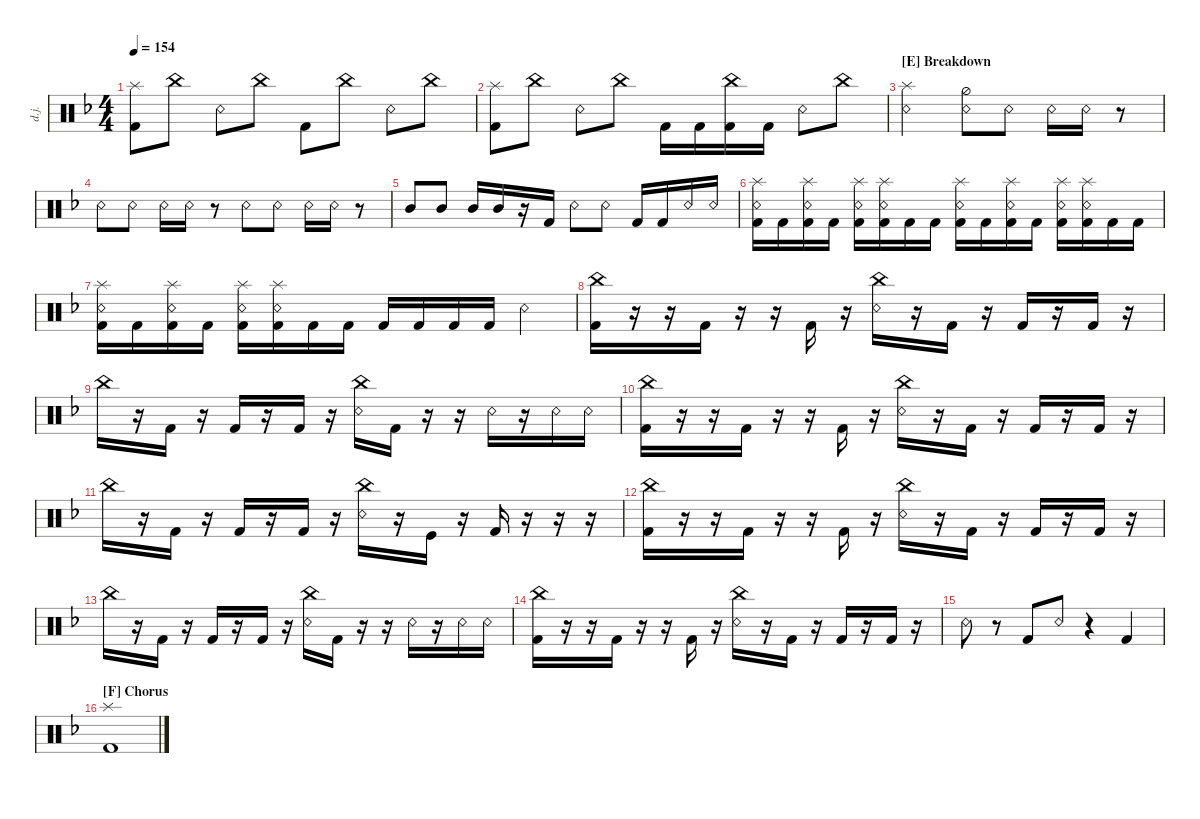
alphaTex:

\defaultSystemsLayout 4
\hideDynamics
\bracketExtendMode nobrackets
\otherSystemsTrackNameOrientation horizontal
\track ("Drumkit Jason" "d.j.") {instrument percussion}
\staff {score}
\articulation defaults
\ts (4 4)
\tempo 154
\clef neutral
\ks dminor
("Splash (hit)"{acc forcenatural} "Kick (hit) 2"{acc forcenatural}).8{dy ff beam Down} "China (hit)"{acc forcenatural}.8{beam Down} "Snare (rim shot)"{acc forcenatural}.8{beam Down} "China (hit)"{acc forcenatural}.8{beam Down} "Kick (hit) 2"{acc forcenatural}.8{beam Down} "China (hit)"{acc forcenatural}.8{beam Down} "Snare (rim shot)"{acc forcenatural}.8{beam Down} "China (hit)"{acc forcenatural}.8{beam Down} |
("Splash (hit)"{acc forcenatural} "Kick (hit) 2"{acc forcenatural}).8{beam Down} "China (hit)"{acc forcenatural}.8{beam Down} "Snare (rim shot)"{acc forcenatural}.8{beam Down} "China (hit)"{acc forcenatural}.8{beam Down} "Kick (hit) 2"{acc forcenatural}.16{beam Down} "Kick (hit) 2"{acc forcenatural}.16{beam Down} ("China (hit)"{acc forcenatural} "Kick (hit) 2"{acc forcenatural}).16{beam Down} "Kick (hit) 2"{acc forcenatural}.16{beam Down} "Snare (rim shot)"{acc forcenatural}.8{beam Down} "China (hit)"{acc forcenatural}.8{beam Down} |
\section ("E" "Breakdown")
("Snare (rim shot)"{acc forcenatural} "Splash (hit)"{acc forcenatural}).2{beam Down} ("Snare (rim shot)"{acc forcenatural} "Hi-Hat (half)"{acc forcenatural}).8{beam Down} "Snare (rim shot)"{acc forcenatural}.8{beam Down} "Snare (rim shot)"{acc forcenatural}.16{beam Down} "Snare (rim shot)"{acc forcenatural}.16{beam Down} r.8{beam Down} |
"Snare (rim shot)"{acc forcenatural}.8{beam Down} "Snare (rim shot)"{acc forcenatural}.8{beam Down} "Snare (rim shot)"{acc forcenatural}.16{beam Down} "Snare (rim shot)"{acc forcenatural}.16{beam Down} r.8{beam Down} "Snare (rim shot)"{acc forcenatural}.8{beam Down} "Snare (rim shot)"{acc forcenatural}.8{beam Down} "Snare (rim shot)"{acc forcenatural}.16{beam Down} "Snare (rim shot)"{acc forcenatural}.16{beam Down} r.8{beam Down} |
"Mid Tom (hit)"{acc forcenatural}.8{beam Up} "Mid Tom (hit)"{acc forcenatural}.8{beam Up} "Mid Tom (hit)"{acc forcenatural}.16{beam Up} "Mid Tom (hit)"{acc forcenatural}.16{beam Up} r.16{beam Up} "Kick (hit) 2"{acc forcenatural}.16{beam Up} "Snare (rim shot)"{acc forcenatural}.8{beam Down} "Snare (rim shot)"{acc forcenatural}.8{beam Down} "Kick (hit) 2"{acc forcenatural}.16{beam Up} "Kick (hit) 2"{acc forcenatural}.16{beam Up} "Snare (rim shot)"{acc forcenatural}.16{beam Up} "Snare (rim shot)"{acc forcenatural}.16{beam Up} |
("Kick (hit) 2"{acc forcenatural} "Snare (rim shot)"{acc forcenatural} "Splash (hit)"{acc forcenatural}).16{beam Down} "Kick (hit) 2"{acc forcenatural}.16{beam Down} ("Kick (hit) 2"{acc forcenatural} "Snare (rim shot)"{acc forcenatural} "Splash (hit)"{acc forcenatural}).16{beam Down} "Kick (hit) 2"{acc forcenatural}.16{beam Down} ("Kick (hit) 2"{acc forcenatural} "Snare (rim shot)"{acc forcenatural} "Splash (hit)"{acc forcenatural}).16{beam Down} ("Kick (hit) 2"{acc forcenatural} "Snare (rim shot)"{acc forcenatural} "Splash (hit)"{acc forcenatural}).16{beam Down} "Kick (hit) 2"{acc forcenatural}.16{beam Down} "Kick (hit) 2"{acc forcenatural}.16{beam Down} ("Kick (hit) 2"{acc forcenatural} "Snare (rim shot)"{acc forcenatural} "Splash (hit)"{acc forcenatural}).16{beam Down} "Kick (hit) 2"{acc forcenatural}.16{beam Down} ("Kick (hit) 2"{acc forcenatural} "Snare (rim shot)"{acc forcenatural} "Splash (hit)"{acc forcenatural}).16{beam Down} "Kick (hit) 2"{acc forcenatural}.16{beam Down} ("Kick (hit) 2"{acc forcenatural} "Snare (rim shot)"{acc forcenatural} "Splash (hit)"{acc forcenatural}).16{beam Down} ("Kick (hit) 2"{acc forcenatural} "Snare (rim shot)"{acc forcenatural} "Splash (hit)"{acc forcenatural}).16{beam Down} "Kick (hit) 2"{acc forcenatural}.16{beam Down} "Kick (hit) 2"{acc forcenatural}.16{beam Down} |
("Kick (hit) 2"{acc forcenatural} "Snare (rim shot)"{acc forcenatural} "Splash (hit)"{acc forcenatural}).16{beam Down} "Kick (hit) 2"{acc forcenatural}.16{beam Down} ("Kick (hit) 2"{acc forcenatural} "Snare (rim shot)"{acc forcenatural} "Splash (hit)"{acc forcenatural}).16{beam Down} "Kick (hit) 2"{acc forcenatural}.16{beam Down} ("Kick (hit) 2"{acc forcenatural} "Snare (rim shot)"{acc forcenatural} "Splash (hit)"{acc forcenatural}).16{beam Down} ("Kick (hit) 2"{acc forcenatural} "Snare (rim shot)"{acc forcenatural} "Splash (hit)"{acc forcenatural}).16{beam Down} "Kick (hit) 2"{acc forcenatural}.16{beam Down} "Kick (hit) 2"{acc forcenatural}.16{beam Down} "Kick (hit) 2"{acc forcenatural}.16{beam Up} "Kick (hit) 2"{acc forcenatural}.16{beam Up} "Kick (hit) 2"{acc forcenatural}.16{beam Up} "Kick (hit) 2"{acc forcenatural}.16{beam Up} "Snare (rim shot)"{acc forcenatural}.4{beam Down} |
("Kick (hit) 2"{acc forcenatural} "China (hit)"{acc forcenatural}).16{beam Down} r.16{beam Down} r.16{beam Down} "Kick (hit) 2"{acc forcenatural}.16{beam Down} r.16{beam Down} r.16{beam Down} "Kick (hit) 2"{acc forcenatural}.16{beam Up} r.16{beam Up} ("Snare (rim shot)"{acc forcenatural} "China (hit)"{acc forcenatural}).16{beam Down} r.16{beam Down} "Kick (hit) 2"{acc forcenatural}.16{beam Down} r.16{beam Down} "Kick (hit) 2"{acc forcenatural}.16{beam Up} r.16{beam Up} "Kick (hit) 2"{acc forcenatural}.16{beam Up} r.16{beam Up} |
"China (hit)"{acc forcenatural}.16{beam Down} r.16{beam Down} "Kick (hit) 2"{acc forcenatural}.16{beam Down} r.16{beam Down} "Kick (hit) 2"{acc forcenatural}.16{beam Up} r.16{beam Up} "Kick (hit) 2"{acc forcenatural}.16{beam Up} r.16{beam Up} ("Snare (rim shot)"{acc forcenatural} "China (hit)"{acc forcenatural}).16{beam Down} "Kick (hit) 2"{acc forcenatural}.16{beam Down} r.16{beam Down} r.16{beam Down} "Snare (rim shot)"{acc forcenatural}.16{beam Down} r.16{beam Down} "Snare (rim shot)"{acc forcenatural}.16{beam Down} "Snare (rim shot)"{acc forcenatural}.16{beam Down} |
("Kick (hit) 2"{acc forcenatural} "China (hit)"{acc forcenatural}).16{beam Down} r.16{beam Down} r.16{beam Down} "Kick (hit) 2"{acc forcenatural}.16{beam Down} r.16{beam Down} r.16{beam Down} "Kick (hit) 2"{acc forcenatural}.16{beam Up} r.16{beam Up} ("Snare (rim shot)"{acc forcenatural} "China (hit)"{acc forcenatural}).16{beam Down} r.16{beam Down} "Kick (hit) 2"{acc forcenatural}.16{beam Down} r.16{beam Down} "Kick (hit) 2"{acc forcenatural}.16{beam Up} r.16{beam Up} "Kick (hit) 2"{acc forcenatural}.16{beam Up} r.16{beam Up} |
"China (hit)"{acc forcenatural}.16{beam Down} r.16{beam Down} "Kick (hit) 2"{acc forcenatural}.16{beam Down} r.16{beam Down} "Kick (hit) 2"{acc forcenatural}.16{beam Up} r.16{beam Up} "Kick (hit) 2"{acc forcenatural}.16{beam Up} r.16{beam Up} ("Snare (rim shot)"{acc forcenatural} "China (hit)"{acc forcenatural}).16{beam Down} r.16{beam Down} "Kick (hit)"{acc forcenatural}.16{beam Down} r.16{beam Down} "Kick (hit) 2"{acc forcenatural}.16{beam Up} r.16{beam Up} r.16{beam Up} r.16{beam Up} |
("Kick (hit) 2"{acc forcenatural} "China (hit)"{acc forcenatural}).16{beam Down} r.16{beam Down} r.16{beam Down} "Kick (hit) 2"{acc forcenatural}.16{beam Down} r.16{beam Down} r.16{beam Down} "Kick (hit) 2"{acc forcenatural}.16{beam Up} r.16{beam Up} ("Snare (rim shot)"{acc forcenatural} "China (hit)"{acc forcenatural}).16{beam Down} r.16{beam Down} "Kick (hit) 2"{acc forcenatural}.16{beam Down} r.16{beam Down} "Kick (hit) 2"{acc forcenatural}.16{beam Up} r.16{beam Up} "Kick (hit) 2"{acc forcenatural}.16{beam Up} r.16{beam Up} |
"China (hit)"{acc forcenatural}.16{beam Down} r.16{beam Down} "Kick (hit) 2"{acc forcenatural}.16{beam Down} r.16{beam Down} "Kick (hit) 2"{acc forcenatural}.16{beam Up} r.16{beam Up} "Kick (hit) 2"{acc forcenatural}.16{beam Up} r.16{beam Up} ("Snare (rim shot)"{acc forcenatural} "China (hit)"{acc forcenatural}).16{beam Down} "Kick (hit) 2"{acc forcenatural}.16{beam Down} r.16{beam Down} r.16{beam Down} "Snare (rim shot)"{acc forcenatural}.16{beam Down} r.16{beam Down} "Snare (rim shot)"{acc forcenatural}.16{beam Down} "Snare (rim shot)"{acc forcenatural}.16{beam Down} |
("Kick (hit) 2"{acc forcenatural} "China (hit)"{acc forcenatural}).16{beam Down} r.16{beam Down} r.16{beam Down} "Kick (hit) 2"{acc forcenatural}.16{beam Down} r.16{beam Down} r.16{beam Down} "Kick (hit) 2"{acc forcenatural}.16{beam Up} r.16{beam Up} ("Snare (rim shot)"{acc forcenatural} "China (hit)"{acc forcenatural}).16{beam Down} r.16{beam Down} "Kick (hit) 2"{acc forcenatural}.16{beam Down} r.16{beam Down} "Kick (hit) 2"{acc forcenatural}.16{beam Up} r.16{beam Up} "Kick (hit) 2"{acc forcenatural}.16{beam Up} r.16{beam Up} |
"Snare (rim shot)"{acc forcenatural}.8{beam Down} r.8{beam Down} "Kick (hit) 2"{acc forcenatural}.8{beam Up} "Snare (rim shot)"{acc forcenatural}.8{beam Up} r.4{beam Up} "Kick (hit) 2"{acc forcenatural}.4{beam Up} |
\section ("F" "Chorus")
("Splash (hit)"{acc forcenatural} "Kick (hit) 2"{acc forcenatural}).1{beam Down}
